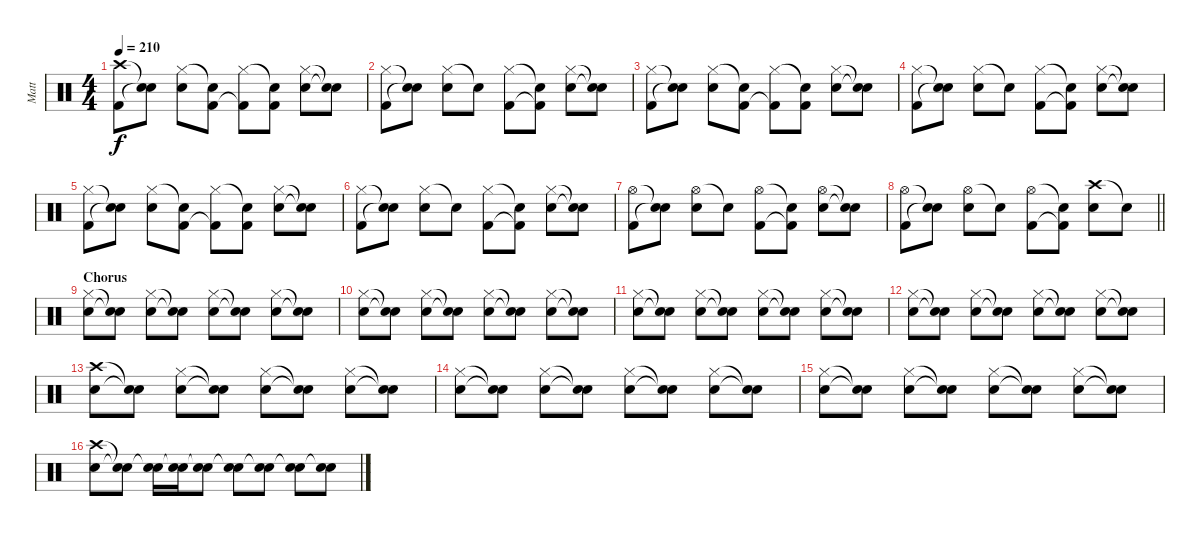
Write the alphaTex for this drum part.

\track ("Matt" "Matt") {instrument percussion}
\staff {score}
\articulation defaults
\ts (4 4)
\tempo 210
\clef neutral
\ks c
("Crash high (hit)" "Kick (hit) 2").8{dy f} ("Snare (hit)"{t} "Snare (hit)"{t}).8 ("Hi-Hat (closed)" "Snare (hit) 2").8 ("Snare (hit)"{t} "Kick (hit) 2").8 ("Hi-Hat (closed)" "Kick (hit) 2"{t}).8 ("Snare (hit)"{t} "Kick (hit) 2").8 ("Hi-Hat (closed)" "Snare (hit) 2").8 ("Snare (hit)"{t} "Snare (hit)"{t}).8 |
("Hi-Hat (closed)" "Kick (hit) 2").8 ("Snare (hit)"{t} "Snare (hit)"{t}).8 ("Hi-Hat (closed)" "Snare (hit) 2").8 "Snare (hit)"{t}.8 ("Hi-Hat (closed)" "Kick (hit) 2").8 ("Snare (hit)"{t} "Kick (hit) 2"{t}).8 ("Hi-Hat (closed)" "Snare (hit) 2").8 ("Snare (hit)"{t} "Snare (hit)"{t}).8 |
("Hi-Hat (closed)" "Kick (hit) 2").8 ("Snare (hit)"{t} "Snare (hit)"{t}).8 ("Hi-Hat (closed)" "Snare (hit) 2").8 ("Snare (hit)"{t} "Kick (hit) 2").8 ("Hi-Hat (closed)" "Kick (hit) 2"{t}).8 ("Snare (hit)"{t} "Kick (hit) 2").8 ("Hi-Hat (closed)" "Snare (hit) 2").8 ("Snare (hit)"{t} "Snare (hit)"{t}).8 |
("Hi-Hat (closed)" "Kick (hit) 2").8 ("Snare (hit)"{t} "Snare (hit)"{t}).8 ("Hi-Hat (closed)" "Snare (hit) 2").8 "Snare (hit)"{t}.8 ("Hi-Hat (closed)" "Kick (hit) 2").8 ("Snare (hit)"{t} "Kick (hit) 2"{t}).8 ("Hi-Hat (closed)" "Snare (hit) 2").8 ("Snare (hit)"{t} "Snare (hit)"{t}).8 |
("Hi-Hat (closed)" "Kick (hit) 2").8 ("Snare (hit)"{t} "Snare (hit)"{t}).8 ("Hi-Hat (closed)" "Snare (hit) 2").8 ("Snare (hit)"{t} "Kick (hit) 2").8 ("Hi-Hat (closed)" "Kick (hit) 2"{t}).8 ("Snare (hit)"{t} "Kick (hit) 2").8 ("Hi-Hat (closed)" "Snare (hit) 2").8 ("Snare (hit)"{t} "Snare (hit)"{t}).8 |
("Hi-Hat (closed)" "Kick (hit) 2").8 ("Snare (hit)"{t} "Snare (hit)"{t}).8 ("Hi-Hat (closed)" "Snare (hit) 2").8 "Snare (hit)"{t}.8 ("Hi-Hat (closed)" "Kick (hit) 2").8 ("Snare (hit)"{t} "Kick (hit) 2"{t}).8 ("Hi-Hat (closed)" "Snare (hit) 2").8 ("Snare (hit)"{t} "Snare (hit)"{t}).8 |
("Hi-Hat (open)" "Kick (hit) 2").8 ("Snare (hit)"{t} "Snare (hit)"{t}).8 ("Hi-Hat (open)" "Snare (hit) 2").8 "Snare (hit)"{t}.8 ("Hi-Hat (open)" "Kick (hit) 2").8 ("Snare (hit)"{t} "Kick (hit) 2"{t}).8 ("Hi-Hat (open)" "Snare (hit) 2").8 ("Snare (hit)"{t} "Snare (hit)"{t}).8 |
\barLineRight lightlight
("Hi-Hat (open)" "Kick (hit) 2").8 ("Snare (hit)"{t} "Snare (hit)"{t}).8 ("Hi-Hat (open)" "Snare (hit) 2").8 "Snare (hit)"{t}.8 ("Hi-Hat (open)" "Kick (hit) 2").8 ("Snare (hit)"{t} "Kick (hit) 2"{t}).8 ("Crash high (hit)" "Snare (hit) 2").8 "Snare (hit)"{t}.8 |
\section ("" "Chorus")
("Hi-Hat (closed)" "Snare (hit) 2").8 ("Snare (hit)"{t} "Snare (hit)"{t}).8 ("Hi-Hat (closed)" "Snare (hit) 2").8 ("Snare (hit)"{t} "Snare (hit)"{t}).8 ("Hi-Hat (closed)" "Snare (hit) 2").8 ("Snare (hit)"{t} "Snare (hit)"{t}).8 ("Hi-Hat (closed)" "Snare (hit) 2").8 ("Snare (hit)"{t} "Snare (hit)"{t}).8 |
("Hi-Hat (closed)" "Snare (hit) 2").8 ("Snare (hit)"{t} "Snare (hit)"{t}).8 ("Hi-Hat (closed)" "Snare (hit) 2").8 ("Snare (hit)"{t} "Snare (hit)"{t}).8 ("Hi-Hat (closed)" "Snare (hit) 2").8 ("Snare (hit)"{t} "Snare (hit)"{t}).8 ("Hi-Hat (closed)" "Snare (hit) 2").8 ("Snare (hit)"{t} "Snare (hit)"{t}).8 |
("Hi-Hat (closed)" "Snare (hit) 2").8 ("Snare (hit)"{t} "Snare (hit)"{t}).8 ("Hi-Hat (closed)" "Snare (hit) 2").8 ("Snare (hit)"{t} "Snare (hit)"{t}).8 ("Hi-Hat (closed)" "Snare (hit) 2").8 ("Snare (hit)"{t} "Snare (hit)"{t}).8 ("Hi-Hat (closed)" "Snare (hit) 2").8 ("Snare (hit)"{t} "Snare (hit)"{t}).8 |
("Hi-Hat (closed)" "Snare (hit) 2").8 ("Snare (hit)"{t} "Snare (hit)"{t}).8 ("Hi-Hat (closed)" "Snare (hit) 2").8 ("Snare (hit)"{t} "Snare (hit)"{t}).8 ("Hi-Hat (closed)" "Snare (hit) 2").8 ("Snare (hit)"{t} "Snare (hit)"{t}).8 ("Hi-Hat (closed)" "Snare (hit) 2").8 ("Snare (hit)"{t} "Snare (hit)"{t}).8 |
("Crash high (hit)" "Snare (hit) 2").8 ("Snare (hit)"{t} "Snare (hit)"{t}).8 ("Hi-Hat (closed)" "Snare (hit) 2").8 ("Snare (hit)"{t} "Snare (hit)"{t}).8 ("Hi-Hat (closed)" "Snare (hit) 2").8 ("Snare (hit)"{t} "Snare (hit)"{t}).8 ("Hi-Hat (closed)" "Snare (hit) 2").8 ("Snare (hit)"{t} "Snare (hit)"{t}).8 |
("Hi-Hat (closed)" "Snare (hit) 2").8 ("Snare (hit)"{t} "Snare (hit)"{t}).8 ("Hi-Hat (closed)" "Snare (hit) 2").8 ("Snare (hit)"{t} "Snare (hit)"{t}).8 ("Hi-Hat (closed)" "Snare (hit) 2").8 ("Snare (hit)"{t} "Snare (hit)"{t}).8 ("Hi-Hat (closed)" "Snare (hit) 2").8 ("Snare (hit)"{t} "Snare (hit)"{t}).8 |
("Hi-Hat (closed)" "Snare (hit) 2").8 ("Snare (hit)"{t} "Snare (hit)"{t}).8 ("Hi-Hat (closed)" "Snare (hit) 2").8 ("Snare (hit)"{t} "Snare (hit)"{t}).8 ("Hi-Hat (closed)" "Snare (hit) 2").8 ("Snare (hit)"{t} "Snare (hit)"{t}).8 ("Hi-Hat (closed)" "Snare (hit) 2").8 ("Snare (hit)"{t} "Snare (hit)"{t}).8 |
("Crash high (hit)" "Snare (hit) 2").8 ("Snare (hit)"{t} "Snare (hit) 2"{t}).8 ("Snare (hit)"{t} "Snare (hit) 2").16 ("Snare (hit)"{t} "Snare (hit) 2").16 ("Snare (hit)"{t} "Snare (hit) 2").8 ("Snare (hit)"{t} "Snare (hit) 2").8 ("Snare (hit)"{t} "Snare (hit) 2").8 ("Snare (hit)"{t} "Snare (hit) 2").8 ("Snare (hit)"{t} "Snare (hit) 2").8
